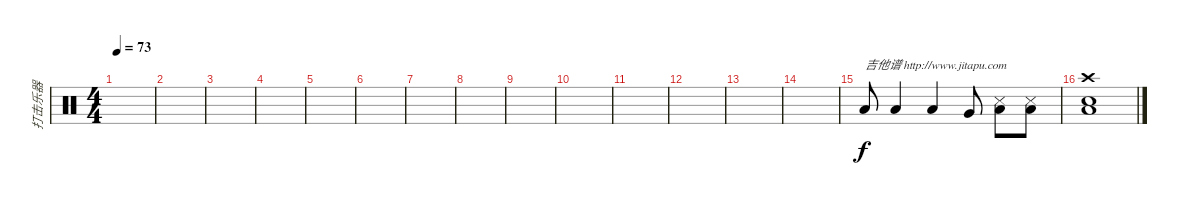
\track ("打击乐器" "打击乐器") {instrument percussion}
\staff {score}
\articulation defaults
\ts (4 4)
\tempo 73
\clef neutral
\ks c
|
|
|
|
|
|
|
|
|
|
|
|
|
|
"Low Floor Tom (hit)".8{txt "吉他谱 http://www.jitapu.com"} "Low Tom (hit)".4 "Low Tom (hit)".4 "Very Low Tom (hit)".8 ("Low Floor Tom (hit)" "Snare (side stick) 3").8 ("Low Floor Tom (hit)" "Snare (side stick) 3").8 |
("Crash high (hit)" "Low Floor Tom (hit)" "Electric Snare (hit)").1
